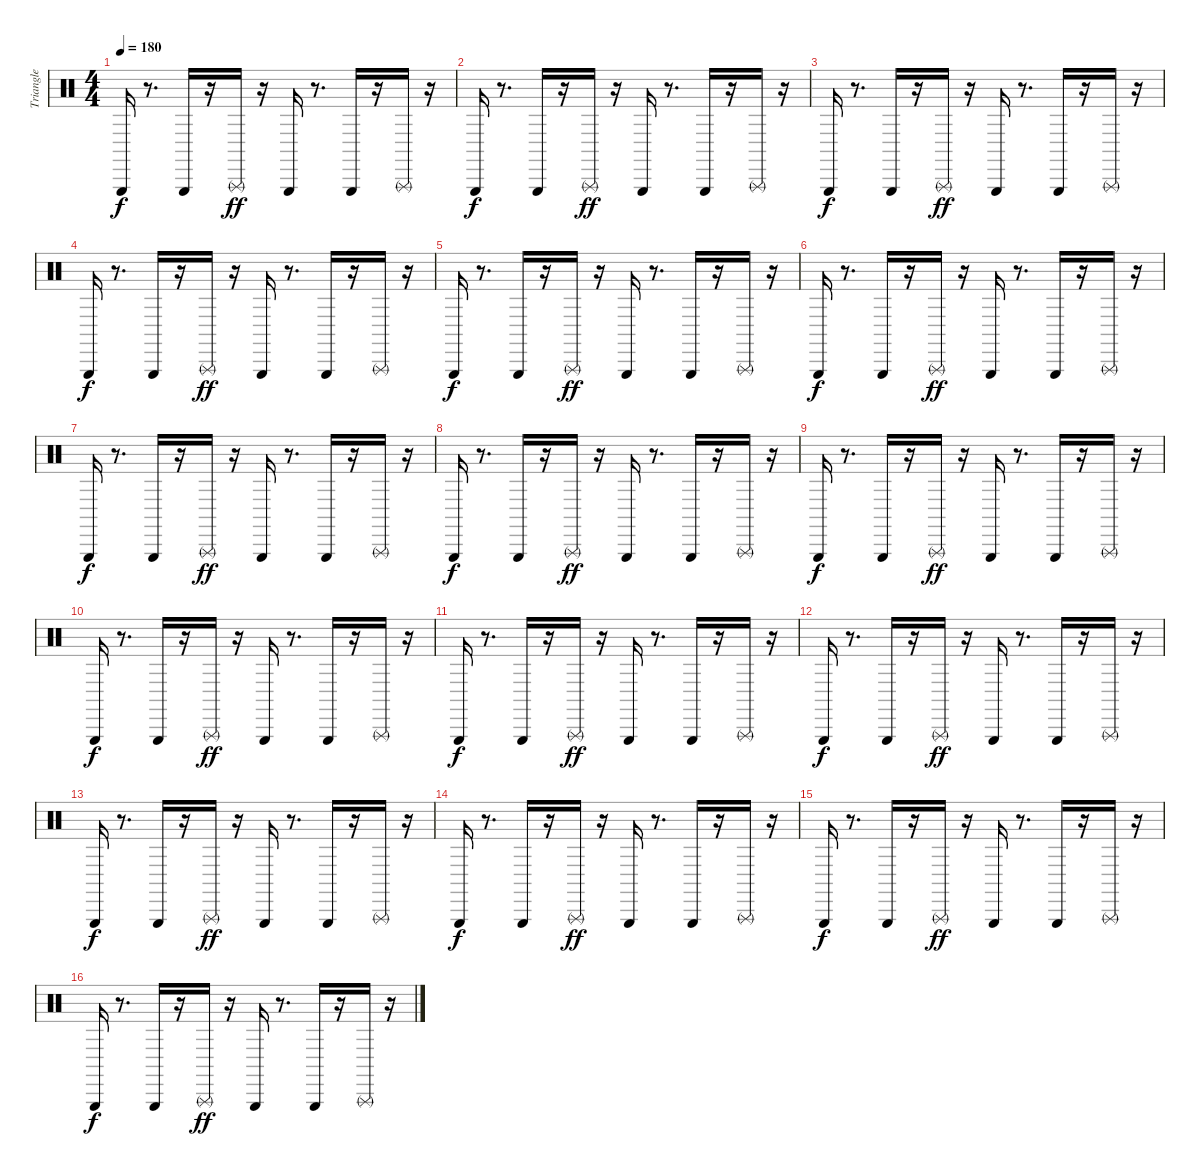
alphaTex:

\track ("Triangle" "Triangle") {instrument percussion}
\staff {score}
\articulation defaults
\ts (4 4)
\tempo 180
\clef neutral
\ks c "Triangle (hit)".16{dy f}
r.8{d} "Triangle (hit)".16 r.16 "Triangle (rnute)".16{dy ff} r.16 "Triangle (hit)".16 r.8{d} "Triangle (hit)".16 r.16 "Triangle (rnute)".16 r.16 |
"Triangle (hit)".16{dy f} r.8{d} "Triangle (hit)".16 r.16 "Triangle (rnute)".16{dy ff} r.16 "Triangle (hit)".16 r.8{d} "Triangle (hit)".16 r.16 "Triangle (rnute)".16 r.16 |
"Triangle (hit)".16{dy f} r.8{d} "Triangle (hit)".16 r.16 "Triangle (rnute)".16{dy ff} r.16 "Triangle (hit)".16 r.8{d} "Triangle (hit)".16 r.16 "Triangle (rnute)".16 r.16 |
"Triangle (hit)".16{dy f} r.8{d} "Triangle (hit)".16 r.16 "Triangle (rnute)".16{dy ff} r.16 "Triangle (hit)".16 r.8{d} "Triangle (hit)".16 r.16 "Triangle (rnute)".16 r.16 |
"Triangle (hit)".16{dy f} r.8{d} "Triangle (hit)".16 r.16 "Triangle (rnute)".16{dy ff} r.16 "Triangle (hit)".16 r.8{d} "Triangle (hit)".16 r.16 "Triangle (rnute)".16 r.16 |
"Triangle (hit)".16{dy f} r.8{d} "Triangle (hit)".16 r.16 "Triangle (rnute)".16{dy ff} r.16 "Triangle (hit)".16 r.8{d} "Triangle (hit)".16 r.16 "Triangle (rnute)".16 r.16 |
"Triangle (hit)".16{dy f} r.8{d} "Triangle (hit)".16 r.16 "Triangle (rnute)".16{dy ff} r.16 "Triangle (hit)".16 r.8{d} "Triangle (hit)".16 r.16 "Triangle (rnute)".16 r.16 |
"Triangle (hit)".16{dy f} r.8{d} "Triangle (hit)".16 r.16 "Triangle (rnute)".16{dy ff} r.16 "Triangle (hit)".16 r.8{d} "Triangle (hit)".16 r.16 "Triangle (rnute)".16 r.16 |
"Triangle (hit)".16{dy f} r.8{d} "Triangle (hit)".16 r.16 "Triangle (rnute)".16{dy ff} r.16 "Triangle (hit)".16 r.8{d} "Triangle (hit)".16 r.16 "Triangle (rnute)".16 r.16 |
"Triangle (hit)".16{dy f} r.8{d} "Triangle (hit)".16 r.16 "Triangle (rnute)".16{dy ff} r.16 "Triangle (hit)".16 r.8{d} "Triangle (hit)".16 r.16 "Triangle (rnute)".16 r.16 |
"Triangle (hit)".16{dy f} r.8{d} "Triangle (hit)".16 r.16 "Triangle (rnute)".16{dy ff} r.16 "Triangle (hit)".16 r.8{d} "Triangle (hit)".16 r.16 "Triangle (rnute)".16 r.16 |
"Triangle (hit)".16{dy f} r.8{d} "Triangle (hit)".16 r.16 "Triangle (rnute)".16{dy ff} r.16 "Triangle (hit)".16 r.8{d} "Triangle (hit)".16 r.16 "Triangle (rnute)".16 r.16 |
"Triangle (hit)".16{dy f} r.8{d} "Triangle (hit)".16 r.16 "Triangle (rnute)".16{dy ff} r.16 "Triangle (hit)".16 r.8{d} "Triangle (hit)".16 r.16 "Triangle (rnute)".16 r.16 |
"Triangle (hit)".16{dy f} r.8{d} "Triangle (hit)".16 r.16 "Triangle (rnute)".16{dy ff} r.16 "Triangle (hit)".16 r.8{d} "Triangle (hit)".16 r.16 "Triangle (rnute)".16 r.16 |
"Triangle (hit)".16{dy f} r.8{d} "Triangle (hit)".16 r.16 "Triangle (rnute)".16{dy ff} r.16 "Triangle (hit)".16 r.8{d} "Triangle (hit)".16 r.16 "Triangle (rnute)".16 r.16 |
"Triangle (hit)".16{dy f} r.8{d} "Triangle (hit)".16 r.16 "Triangle (rnute)".16{dy ff} r.16 "Triangle (hit)".16 r.8{d} "Triangle (hit)".16 r.16 "Triangle (rnute)".16 r.16
